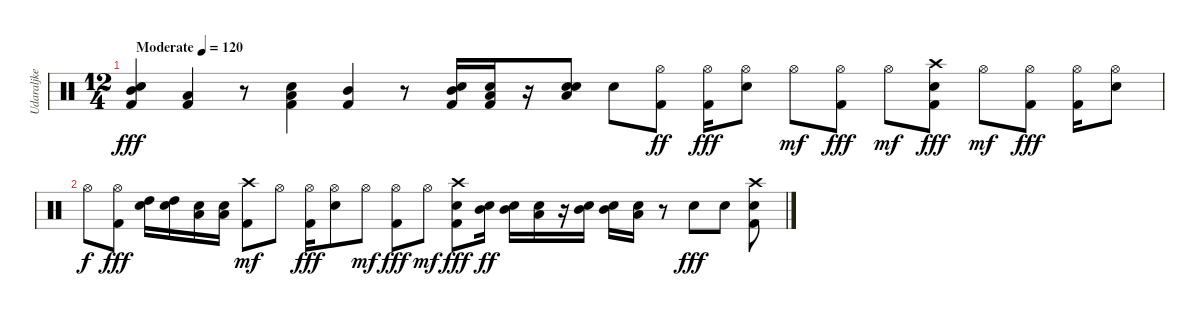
\track ("Udaraljke" "Udaraljke") {instrument percussion}
\staff {score}
\articulation defaults
\ts (12 4)
\tempo (120 "Moderate")
\clef neutral
\ks c
("Electric Snare (hit)" "Mid Tom (hit)" "Kick (hit) 2").4{dy fff} ("Low Tom (hit)" "Kick (hit) 2").4 r.8 ("Electric Snare (hit)" "Low Tom (hit)" "Kick (hit) 2").4 ("Mid Tom (hit)" "Kick (hit) 2").4 r.8 ("Electric Snare (hit)" "Mid Tom (hit)" "Kick (hit) 2").16 ("Electric Snare (hit)" "Low Tom (hit)" "Kick (hit) 2").16 r.16 ("Electric Snare (hit)" "Low Tom (hit)" "Snare (hit)").8 "Electric Snare (hit)".8 ("Kick (hit) 2" "Hi-Hat (open)").8{dy ff} ("Hi-Hat (open)" "Kick (hit) 2").16{dy fff} ("Hi-Hat (open)" "Electric Snare (hit)").8 "Hi-Hat (open)".8{dy mf} ("Hi-Hat (open)" "Kick (hit) 2").8{dy fff} "Hi-Hat (open)".8{dy mf} ("Crash high (hit)" "Electric Snare (hit)" "Kick (hit) 2").8{dy fff} "Hi-Hat (open)".8{dy mf} ("Hi-Hat (open)" "Kick (hit) 2").8{dy fff} ("Hi-Hat (open)" "Kick (hit) 2").16 ("Hi-Hat (open)" "Electric Snare (hit)").8 |
"Hi-Hat (open)".8{dy f} ("Hi-Hat (open)" "Kick (hit) 2").8{dy fff} ("Electric Snare (hit)" "High Tom (hit)").16 ("Electric Snare (hit)" "High Tom (hit)").16 ("Electric Snare (hit)" "Low Tom (hit)").16 ("Electric Snare (hit)" "Low Tom (hit)").16 ("Crash high (hit)" "Kick (hit) 2").8{dy mf} "Hi-Hat (open)".8 ("Hi-Hat (open)" "Kick (hit) 2").16{dy fff} ("Hi-Hat (open)" "Electric Snare (hit)").8 "Hi-Hat (open)".8{dy mf} ("Hi-Hat (open)" "Kick (hit) 2").8{dy fff} "Hi-Hat (open)".8{dy mf} ("Crash high (hit)" "Electric Snare (hit)" "Kick (hit) 2").8{dy fff} ("Electric Snare (hit)" "Mid Tom (hit)").16{dy ff} ("Electric Snare (hit)" "Mid Tom (hit)").16 ("Electric Snare (hit)" "Low Tom (hit)").16 r.16 ("Electric Snare (hit)" "Mid Tom (hit)").16 ("Electric Snare (hit)" "Mid Tom (hit)").16 ("Electric Snare (hit)" "Low Tom (hit)").16 r.8 "Electric Snare (hit)".8{dy fff} "Electric Snare (hit)".8 ("Electric Snare (hit)" "Crash high (hit)" "Kick (hit) 2").8
